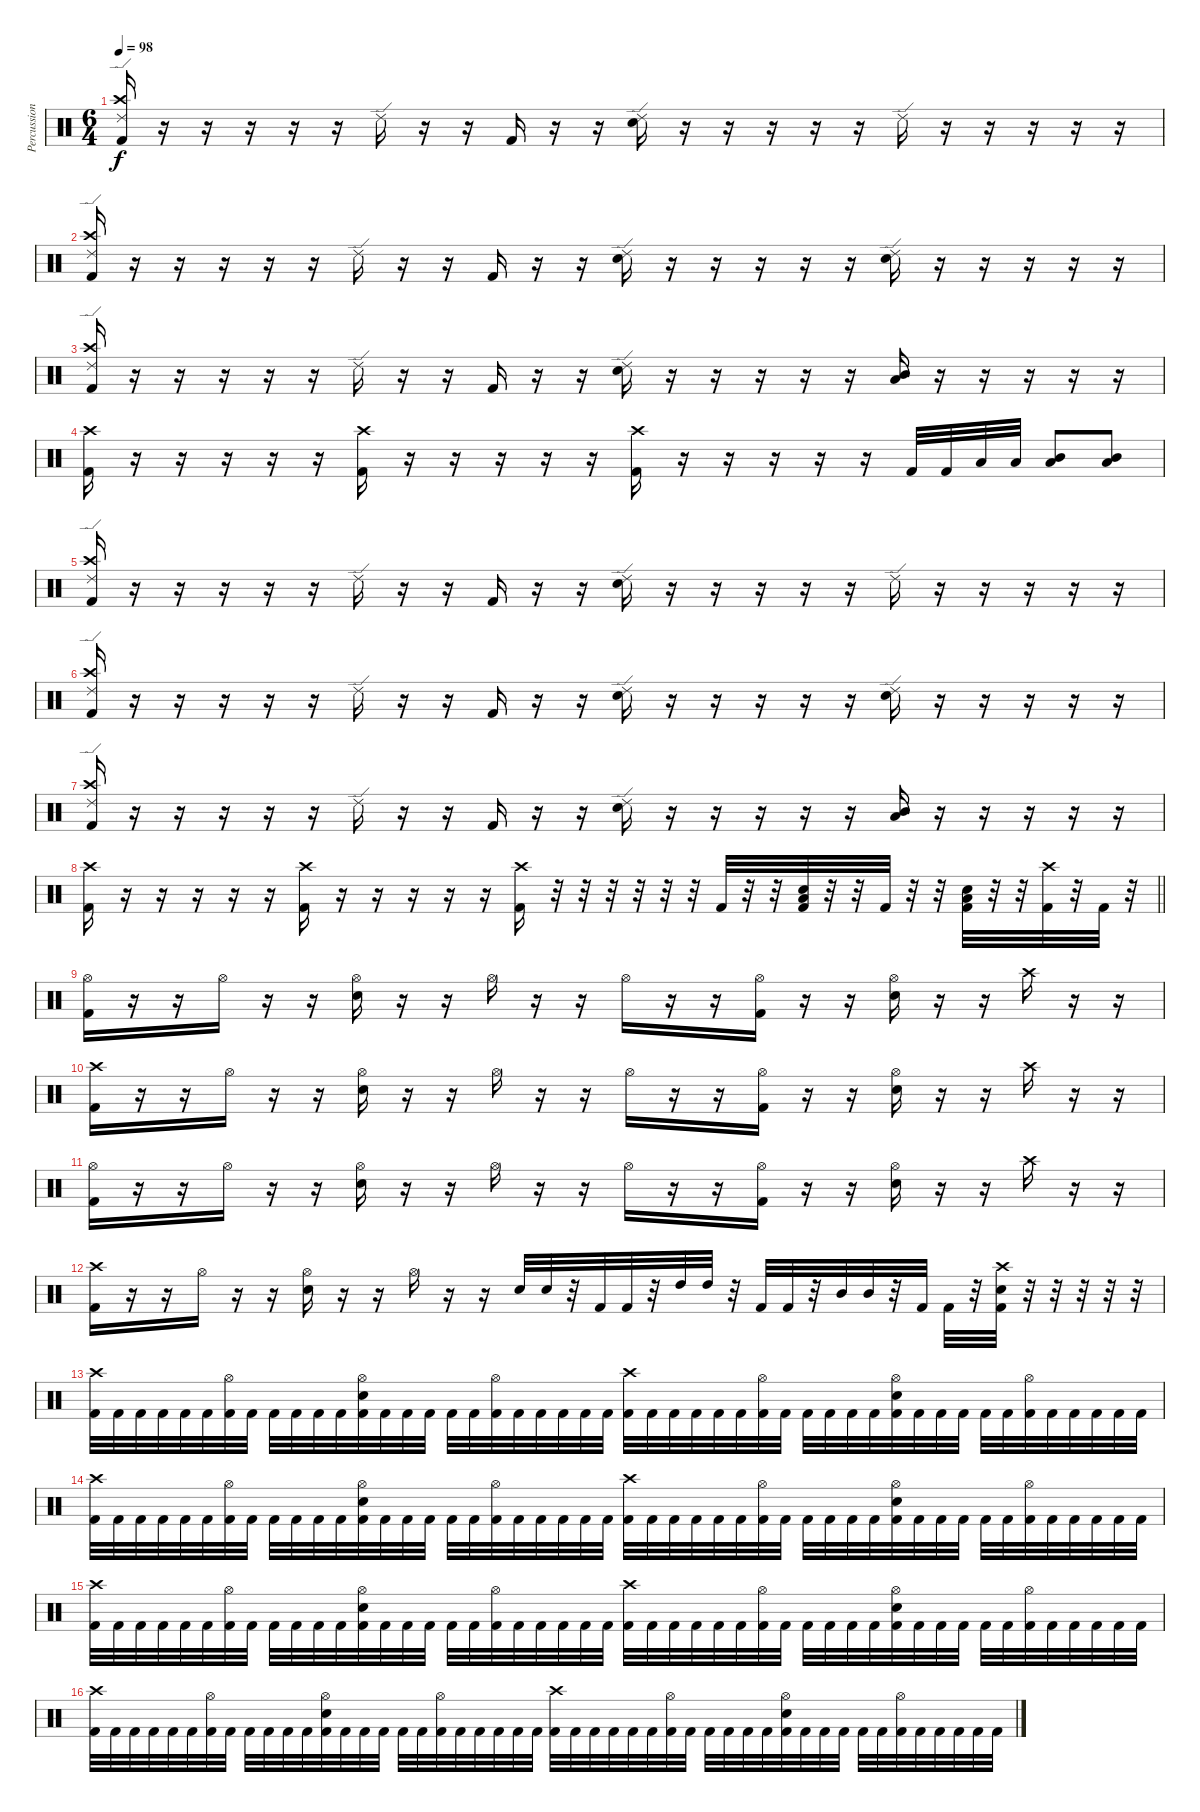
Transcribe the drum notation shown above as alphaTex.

\track ("Percussion" "Percussion") {instrument percussion}
\staff {score}
\articulation defaults
\ts (6 4)
\tempo 98
\clef neutral
\ks c
("Ride (edge) 2" "Crash high (hit)" "Kick (hit) 2").16{dy f} r.16 r.16 r.16 r.16 r.16 "Ride (edge) 2".16 r.16 r.16 "Kick (hit) 2".16 r.16 r.16 ("Ride (edge) 2" "Electric Snare (hit)").16 r.16 r.16 r.16 r.16 r.16 "Ride (edge) 2".16 r.16 r.16 r.16 r.16 r.16 |
("Ride (edge) 2" "Crash high (hit)" "Kick (hit) 2").16 r.16 r.16 r.16 r.16 r.16 "Ride (edge) 2".16 r.16 r.16 "Kick (hit) 2".16 r.16 r.16 ("Ride (edge) 2" "Electric Snare (hit)").16 r.16 r.16 r.16 r.16 r.16 ("Ride (edge) 2" "Electric Snare (hit)").16 r.16 r.16 r.16 r.16 r.16 |
("Ride (edge) 2" "Crash high (hit)" "Kick (hit) 2").16 r.16 r.16 r.16 r.16 r.16 "Ride (edge) 2".16 r.16 r.16 "Kick (hit) 2".16 r.16 r.16 ("Ride (edge) 2" "Electric Snare (hit)").16 r.16 r.16 r.16 r.16 r.16 ("Mid Tom (hit)" "Low Tom (hit)").16 r.16 r.16 r.16 r.16 r.16 |
("Crash high (hit)" "Kick (hit) 2").16 r.16 r.16 r.16 r.16 r.16 ("Crash high (hit)" "Kick (hit) 2").16 r.16 r.16 r.16 r.16 r.16 ("Crash high (hit)" "Kick (hit) 2").16 r.16 r.16 r.16 r.16 r.16 "Kick (hit) 2".32 "Kick (hit) 2".32 "Low Tom (hit)".32 "Low Tom (hit)".32 ("Mid Tom (hit)" "Low Tom (hit)").8 ("Mid Tom (hit)" "Low Tom (hit)").8 |
("Ride (edge) 2" "Crash high (hit)" "Kick (hit) 2").16 r.16 r.16 r.16 r.16 r.16 "Ride (edge) 2".16 r.16 r.16 "Kick (hit) 2".16 r.16 r.16 ("Ride (edge) 2" "Electric Snare (hit)").16 r.16 r.16 r.16 r.16 r.16 "Ride (edge) 2".16 r.16 r.16 r.16 r.16 r.16 |
("Ride (edge) 2" "Crash high (hit)" "Kick (hit) 2").16 r.16 r.16 r.16 r.16 r.16 "Ride (edge) 2".16 r.16 r.16 "Kick (hit) 2".16 r.16 r.16 ("Ride (edge) 2" "Electric Snare (hit)").16 r.16 r.16 r.16 r.16 r.16 ("Ride (edge) 2" "Electric Snare (hit)").16 r.16 r.16 r.16 r.16 r.16 |
("Ride (edge) 2" "Crash high (hit)" "Kick (hit) 2").16 r.16 r.16 r.16 r.16 r.16 "Ride (edge) 2".16 r.16 r.16 "Kick (hit) 2".16 r.16 r.16 ("Ride (edge) 2" "Electric Snare (hit)").16 r.16 r.16 r.16 r.16 r.16 ("Mid Tom (hit)" "Low Tom (hit)").16 r.16 r.16 r.16 r.16 r.16 |
\barLineRight lightlight
("Crash high (hit)" "Kick (hit) 2").16 r.16 r.16 r.16 r.16 r.16 ("Crash high (hit)" "Kick (hit) 2").16 r.16 r.16 r.16 r.16 r.16 ("Crash high (hit)" "Kick (hit) 2").16 r.32 r.32 r.32 r.32 r.32 r.32 "Kick (hit) 2".32 r.32 r.32 ("Low Floor Tom (hit)" "Electric Snare (hit)" "Kick (hit) 2").32 r.32 r.32 "Kick (hit) 2".32 r.32 r.32 ("Low Floor Tom (hit)" "Electric Snare (hit)" "Kick (hit) 2").32 r.32 r.32 ("Crash high (hit)" "Kick (hit) 2").32 r.32 "Kick (hit) 2".32 r.32 |
("Hi-Hat (open)" "Kick (hit) 2").16 r.16 r.16 "Hi-Hat (open)".16 r.16 r.16 ("Hi-Hat (open)" "Electric Snare (hit)").16 r.16 r.16 "Hi-Hat (open)".16 r.16 r.16 "Hi-Hat (open)".16 r.16 r.16 ("Hi-Hat (open)" "Kick (hit) 2").16 r.16 r.16 ("Hi-Hat (open)" "Electric Snare (hit)").16 r.16 r.16 "Crash high (hit)".16 r.16 r.16 |
("Crash high (hit)" "Kick (hit) 2").16 r.16 r.16 "Hi-Hat (open)".16 r.16 r.16 ("Hi-Hat (open)" "Electric Snare (hit)").16 r.16 r.16 "Hi-Hat (open)".16 r.16 r.16 "Hi-Hat (open)".16 r.16 r.16 ("Hi-Hat (open)" "Kick (hit) 2").16 r.16 r.16 ("Hi-Hat (open)" "Electric Snare (hit)").16 r.16 r.16 "Crash high (hit)".16 r.16 r.16 |
("Hi-Hat (open)" "Kick (hit) 2").16 r.16 r.16 "Hi-Hat (open)".16 r.16 r.16 ("Hi-Hat (open)" "Electric Snare (hit)").16 r.16 r.16 "Hi-Hat (open)".16 r.16 r.16 "Hi-Hat (open)".16 r.16 r.16 ("Hi-Hat (open)" "Kick (hit) 2").16 r.16 r.16 ("Hi-Hat (open)" "Electric Snare (hit)").16 r.16 r.16 "Crash high (hit)".16 r.16 r.16 |
("Crash high (hit)" "Kick (hit) 2").16 r.16 r.16 "Hi-Hat (open)".16 r.16 r.16 ("Hi-Hat (open)" "Electric Snare (hit)").16 r.16 r.16 "Hi-Hat (open)".16 r.16 r.16 "Electric Snare (hit)".32 "Electric Snare (hit)".32 r.32 "Kick (hit) 2".32 "Kick (hit) 2".32 r.32 "High Tom (hit)".32 "High Tom (hit)".32 r.32 "Kick (hit) 2".32 "Kick (hit) 2".32 r.32 "Mid Tom (hit)".32 "Mid Tom (hit)".32 r.32 "Kick (hit) 2".32 "Kick (hit) 2".32 r.32 ("Crash high (hit)" "Electric Snare (hit)" "Kick (hit) 2").32 r.32 r.32 r.32 r.32 r.32 |
("Crash high (hit)" "Kick (hit) 2").32 "Kick (hit) 2".32 "Kick (hit) 2".32 "Kick (hit) 2".32 "Kick (hit) 2".32 "Kick (hit) 2".32 ("Hi-Hat (open)" "Kick (hit) 2").32 "Kick (hit) 2".32 "Kick (hit) 2".32 "Kick (hit) 2".32 "Kick (hit) 2".32 "Kick (hit) 2".32 ("Hi-Hat (open)" "Electric Snare (hit)" "Kick (hit) 2").32 "Kick (hit) 2".32 "Kick (hit) 2".32 "Kick (hit) 2".32 "Kick (hit) 2".32 "Kick (hit) 2".32 ("Hi-Hat (open)" "Kick (hit) 2").32 "Kick (hit) 2".32 "Kick (hit) 2".32 "Kick (hit) 2".32 "Kick (hit) 2".32 "Kick (hit) 2".32 ("Crash high (hit)" "Kick (hit) 2").32 "Kick (hit) 2".32 "Kick (hit) 2".32 "Kick (hit) 2".32 "Kick (hit) 2".32 "Kick (hit) 2".32 ("Hi-Hat (open)" "Kick (hit) 2").32 "Kick (hit) 2".32 "Kick (hit) 2".32 "Kick (hit) 2".32 "Kick (hit) 2".32 "Kick (hit) 2".32 ("Hi-Hat (open)" "Electric Snare (hit)" "Kick (hit) 2").32 "Kick (hit) 2".32 "Kick (hit) 2".32 "Kick (hit) 2".32 "Kick (hit) 2".32 "Kick (hit) 2".32 ("Hi-Hat (open)" "Kick (hit) 2").32 "Kick (hit) 2".32 "Kick (hit) 2".32 "Kick (hit) 2".32 "Kick (hit) 2".32 "Kick (hit) 2".32 |
("Crash high (hit)" "Kick (hit) 2").32 "Kick (hit) 2".32 "Kick (hit) 2".32 "Kick (hit) 2".32 "Kick (hit) 2".32 "Kick (hit) 2".32 ("Hi-Hat (open)" "Kick (hit) 2").32 "Kick (hit) 2".32 "Kick (hit) 2".32 "Kick (hit) 2".32 "Kick (hit) 2".32 "Kick (hit) 2".32 ("Hi-Hat (open)" "Electric Snare (hit)" "Kick (hit) 2").32 "Kick (hit) 2".32 "Kick (hit) 2".32 "Kick (hit) 2".32 "Kick (hit) 2".32 "Kick (hit) 2".32 ("Hi-Hat (open)" "Kick (hit) 2").32 "Kick (hit) 2".32 "Kick (hit) 2".32 "Kick (hit) 2".32 "Kick (hit) 2".32 "Kick (hit) 2".32 ("Crash high (hit)" "Kick (hit) 2").32 "Kick (hit) 2".32 "Kick (hit) 2".32 "Kick (hit) 2".32 "Kick (hit) 2".32 "Kick (hit) 2".32 ("Hi-Hat (open)" "Kick (hit) 2").32 "Kick (hit) 2".32 "Kick (hit) 2".32 "Kick (hit) 2".32 "Kick (hit) 2".32 "Kick (hit) 2".32 ("Hi-Hat (open)" "Electric Snare (hit)" "Kick (hit) 2").32 "Kick (hit) 2".32 "Kick (hit) 2".32 "Kick (hit) 2".32 "Kick (hit) 2".32 "Kick (hit) 2".32 ("Hi-Hat (open)" "Kick (hit) 2").32 "Kick (hit) 2".32 "Kick (hit) 2".32 "Kick (hit) 2".32 "Kick (hit) 2".32 "Kick (hit) 2".32 |
("Crash high (hit)" "Kick (hit) 2").32 "Kick (hit) 2".32 "Kick (hit) 2".32 "Kick (hit) 2".32 "Kick (hit) 2".32 "Kick (hit) 2".32 ("Hi-Hat (open)" "Kick (hit) 2").32 "Kick (hit) 2".32 "Kick (hit) 2".32 "Kick (hit) 2".32 "Kick (hit) 2".32 "Kick (hit) 2".32 ("Hi-Hat (open)" "Electric Snare (hit)" "Kick (hit) 2").32 "Kick (hit) 2".32 "Kick (hit) 2".32 "Kick (hit) 2".32 "Kick (hit) 2".32 "Kick (hit) 2".32 ("Hi-Hat (open)" "Kick (hit) 2").32 "Kick (hit) 2".32 "Kick (hit) 2".32 "Kick (hit) 2".32 "Kick (hit) 2".32 "Kick (hit) 2".32 ("Crash high (hit)" "Kick (hit) 2").32 "Kick (hit) 2".32 "Kick (hit) 2".32 "Kick (hit) 2".32 "Kick (hit) 2".32 "Kick (hit) 2".32 ("Hi-Hat (open)" "Kick (hit) 2").32 "Kick (hit) 2".32 "Kick (hit) 2".32 "Kick (hit) 2".32 "Kick (hit) 2".32 "Kick (hit) 2".32 ("Hi-Hat (open)" "Electric Snare (hit)" "Kick (hit) 2").32 "Kick (hit) 2".32 "Kick (hit) 2".32 "Kick (hit) 2".32 "Kick (hit) 2".32 "Kick (hit) 2".32 ("Hi-Hat (open)" "Kick (hit) 2").32 "Kick (hit) 2".32 "Kick (hit) 2".32 "Kick (hit) 2".32 "Kick (hit) 2".32 "Kick (hit) 2".32 |
("Crash high (hit)" "Kick (hit) 2").32 "Kick (hit) 2".32 "Kick (hit) 2".32 "Kick (hit) 2".32 "Kick (hit) 2".32 "Kick (hit) 2".32 ("Hi-Hat (open)" "Kick (hit) 2").32 "Kick (hit) 2".32 "Kick (hit) 2".32 "Kick (hit) 2".32 "Kick (hit) 2".32 "Kick (hit) 2".32 ("Hi-Hat (open)" "Electric Snare (hit)" "Kick (hit) 2").32 "Kick (hit) 2".32 "Kick (hit) 2".32 "Kick (hit) 2".32 "Kick (hit) 2".32 "Kick (hit) 2".32 ("Hi-Hat (open)" "Kick (hit) 2").32 "Kick (hit) 2".32 "Kick (hit) 2".32 "Kick (hit) 2".32 "Kick (hit) 2".32 "Kick (hit) 2".32 ("Crash high (hit)" "Kick (hit) 2").32 "Kick (hit) 2".32 "Kick (hit) 2".32 "Kick (hit) 2".32 "Kick (hit) 2".32 "Kick (hit) 2".32 ("Hi-Hat (open)" "Kick (hit) 2").32 "Kick (hit) 2".32 "Kick (hit) 2".32 "Kick (hit) 2".32 "Kick (hit) 2".32 "Kick (hit) 2".32 ("Hi-Hat (open)" "Electric Snare (hit)" "Kick (hit) 2").32 "Kick (hit) 2".32 "Kick (hit) 2".32 "Kick (hit) 2".32 "Kick (hit) 2".32 "Kick (hit) 2".32 ("Hi-Hat (open)" "Kick (hit) 2").32 "Kick (hit) 2".32 "Kick (hit) 2".32 "Kick (hit) 2".32 "Kick (hit) 2".32 "Kick (hit) 2".32
